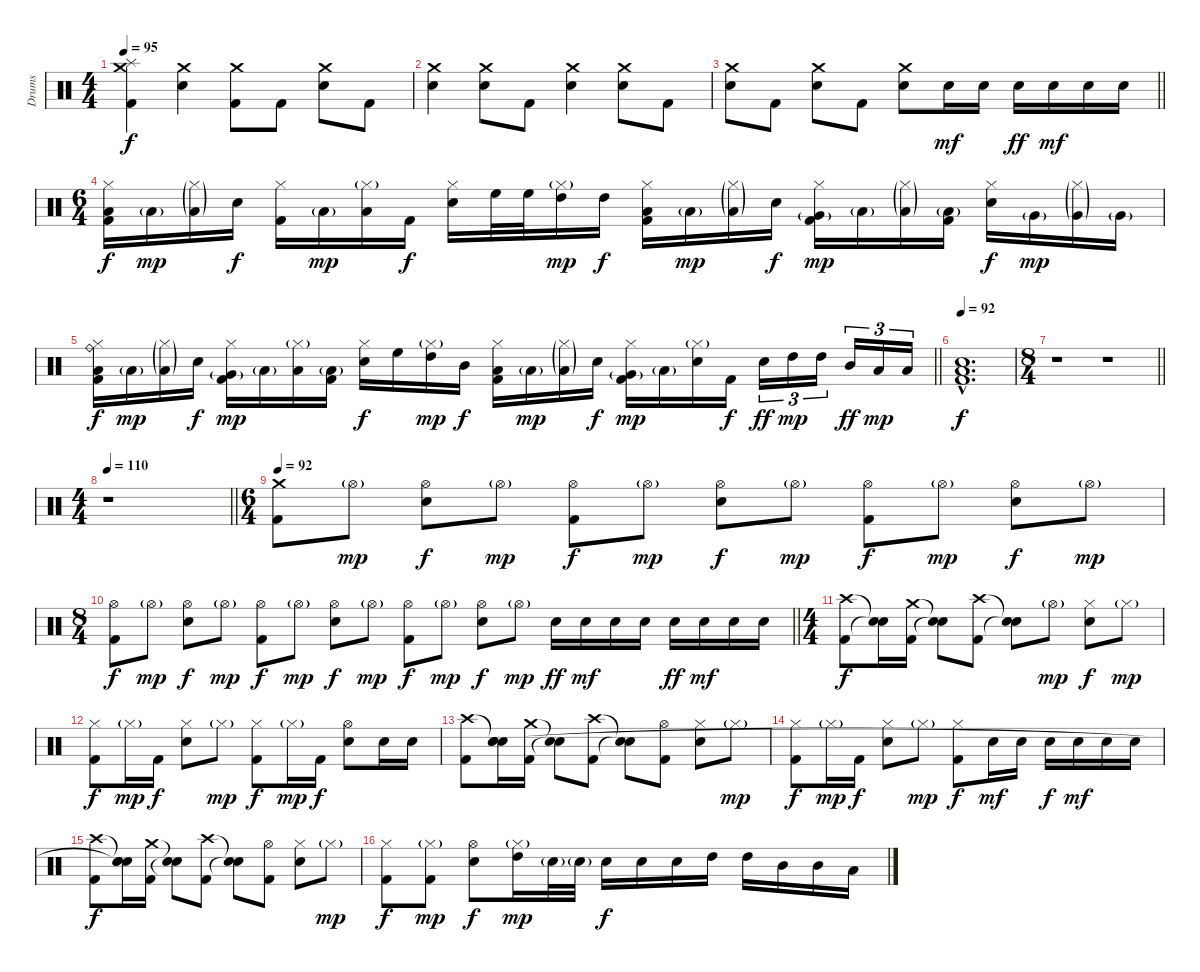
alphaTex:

\track ("Drums" "Drums") {instrument percussion}
\staff {score}
\articulation defaults
\ts (4 4)
\tempo 95
\clef neutral
\ks c
("Splash (hit)" "Crash medium (hit)" "Kick (hit) 2").4{dy f} ("Crash medium (hit)" "Electric Snare (hit)").4 ("Crash medium (hit)" "Kick (hit) 2").8 "Kick (hit) 2".8 ("Crash medium (hit)" "Electric Snare (hit)").8 "Kick (hit) 2".8 |
("Crash medium (hit)" "Electric Snare (hit)").4 ("Crash medium (hit)" "Electric Snare (hit)").8 "Kick (hit) 2".8 ("Crash medium (hit)" "Electric Snare (hit)").4 ("Crash medium (hit)" "Electric Snare (hit)").8 "Kick (hit) 2".8 |
\barLineRight lightlight
("Crash medium (hit)" "Electric Snare (hit)").8 "Kick (hit) 2".8 ("Crash medium (hit)" "Electric Snare (hit)").8 "Kick (hit) 2".8 ("Crash medium (hit)" "Electric Snare (hit)").8 "Electric Snare (hit)".16{dy mf} "Electric Snare (hit)".16 "Electric Snare (hit)".16{dy ff} "Electric Snare (hit)".16{dy mf} "Electric Snare (hit)".16 "Electric Snare (hit)".16 |
\ts (6 4)
("Low Tom (hit)" "Hi-Hat (closed)" "Kick (hit) 2").16{dy f} "Low Tom (hit)"{g}.16{dy mp} ("Low Tom (hit)"{g} "Hi-Hat (closed)"{g}).16 "Electric Snare (hit)".16{dy f} ("Hi-Hat (closed)" "Kick (hit) 2").16 "Low Tom (hit)"{g}.16{dy mp} ("Low Tom (hit)" "Hi-Hat (closed)"{g}).16 "Kick (hit) 2".16{dy f} ("Electric Snare (hit)" "Hi-Hat (closed)").16 "High Floor Tom (hit)".32 "High Floor Tom (hit)".32 ("High Tom (hit)" "Hi-Hat (closed)"{g}).16{dy mp} "High Tom (hit)".16{dy f} ("Low Tom (hit)" "Hi-Hat (closed)" "Kick (hit) 2").16 "Low Tom (hit)"{g}.16{dy mp} ("Low Tom (hit)"{g} "Hi-Hat (closed)"{g}).16 "Electric Snare (hit)".16{dy f} ("Very Low Tom (hit)"{g} "Hi-Hat (closed)" "Kick (hit) 2").16{dy mp} "Low Tom (hit)"{g}.16 ("Low Tom (hit)"{g} "Hi-Hat (closed)"{g}).16 ("Low Tom (hit)"{g} "Kick (hit) 2").16 ("Electric Snare (hit)" "Hi-Hat (closed)").16{dy f} "Very Low Tom (hit)"{g}.16{dy mp} ("Very Low Tom (hit)"{g} "Hi-Hat (closed)"{g}).16 "Very Low Tom (hit)"{g}.16 |
\barLineRight lightlight
("Ride (bell)" "Low Tom (hit)" "Hi-Hat (closed)" "Kick (hit) 2").16{dy f} "Low Tom (hit)"{g}.16{dy mp} ("Low Tom (hit)"{g} "Hi-Hat (closed)"{g}).16 "Electric Snare (hit)".16{dy f} ("Very Low Tom (hit)"{g} "Hi-Hat (closed)" "Kick (hit) 2").16{dy mp} "Low Tom (hit)"{g}.16 ("Low Tom (hit)" "Hi-Hat (closed)"{g}).16 ("Low Tom (hit)"{g} "Kick (hit) 2").16 ("Electric Snare (hit)" "Hi-Hat (closed)").16{dy f} "High Floor Tom (hit)".16 ("High Tom (hit)" "Hi-Hat (closed)"{g}).16{dy mp} "Mid Tom (hit)".16{dy f} ("Low Tom (hit)" "Hi-Hat (closed)" "Kick (hit) 2").16 "Low Tom (hit)"{g}.16{dy mp} ("Low Tom (hit)"{g} "Hi-Hat (closed)"{g}).16 "Electric Snare (hit)".16{dy f} ("Very Low Tom (hit)"{g} "Hi-Hat (closed)" "Kick (hit) 2").16{dy mp} "Low Tom (hit)"{g}.16 ("Electric Snare (hit)" "Hi-Hat (closed)"{g}).16 "Kick (hit) 2".16{dy f} "Electric Snare (hit)".16{tu (3 2) dy ff} "High Tom (hit)".16{tu (3 2) dy mp} "High Tom (hit)".16{tu (3 2)} "Mid Tom (hit)".16{tu (3 2) dy ff} "Low Tom (hit)".16{tu (3 2) dy mp} "Low Tom (hit)".16{tu (3 2)} |
\tempo 92
("Low Tom (hit)"{hac} "Electric Snare (hit)"{hac} "Kick (hit) 2"{hac}).1{d dy f} |
\ts (8 4)
\barLineRight lightlight
r.1 r.1 |
\ts (4 4)
\tempo 110
\barLineRight lightlight
r.1 |
\ts (6 4)
\tempo 92
("Crash medium (hit)" "Kick (hit) 2").8 "Hi-Hat (open)"{g}.8{dy mp} ("Hi-Hat (open)" "Electric Snare (hit)").8{dy f} "Hi-Hat (open)"{g}.8{dy mp} ("Hi-Hat (open)" "Kick (hit) 2").8{dy f} "Hi-Hat (open)"{g}.8{dy mp} ("Hi-Hat (open)" "Electric Snare (hit)").8{dy f} "Hi-Hat (open)"{g}.8{dy mp} ("Hi-Hat (open)" "Kick (hit) 2").8{dy f} "Hi-Hat (open)"{g}.8{dy mp} ("Hi-Hat (open)" "Electric Snare (hit)").8{dy f} "Hi-Hat (open)"{g}.8{dy mp} |
\ts (8 4)
\barLineRight lightlight
("Hi-Hat (open)" "Kick (hit) 2").8{dy f} "Hi-Hat (open)"{g}.8{dy mp} ("Hi-Hat (open)" "Electric Snare (hit)").8{dy f} "Hi-Hat (open)"{g}.8{dy mp} ("Hi-Hat (open)" "Kick (hit) 2").8{dy f} "Hi-Hat (open)"{g}.8{dy mp} ("Hi-Hat (open)" "Electric Snare (hit)").8{dy f} "Hi-Hat (open)"{g}.8{dy mp} ("Hi-Hat (open)" "Kick (hit) 2").8{dy f} "Hi-Hat (open)"{g}.8{dy mp} ("Hi-Hat (open)" "Electric Snare (hit)").8{dy f} "Hi-Hat (open)"{g}.8{dy mp} "Electric Snare (hit)".16{dy ff} "Electric Snare (hit)".16{dy mf} "Electric Snare (hit)".16 "Electric Snare (hit)".16 "Electric Snare (hit)".16{dy ff} "Electric Snare (hit)".16{dy mf} "Electric Snare (hit)".16 "Electric Snare (hit)".16 |
\ts (4 4)
("Crash high (hit)" "Kick (hit) 2").8{dy f} ("Snare (hit)"{t} "Snare (hit)"{t}).16 ("Crash medium (hit)" "Kick (hit) 2").16 ("Snare (hit)"{t} "Snare (hit)"{t}).8 ("Crash high (hit)" "Kick (hit) 2").8 ("Snare (hit)"{t} "Snare (hit)"{t}).8 "Hi-Hat (open)"{g}.8{dy mp} ("Hi-Hat (closed)" "Electric Snare (hit)").8{dy f} "Hi-Hat (closed)"{g}.8{dy mp} |
("Hi-Hat (closed)" "Kick (hit) 2").8{dy f} "Hi-Hat (closed)"{g}.16{dy mp} "Kick (hit) 2".16{dy f} ("Hi-Hat (closed)" "Electric Snare (hit)").8 "Hi-Hat (closed)"{g}.8{dy mp} ("Hi-Hat (closed)" "Kick (hit) 2").8{dy f} "Hi-Hat (closed)"{g}.16{dy mp} "Kick (hit) 2".16{dy f} ("Hi-Hat (open)" "Electric Snare (hit)").8 "Electric Snare (hit)".16 "Electric Snare (hit)".16 |
("Crash high (hit)" "Kick (hit) 2").8 ("Snare (hit)"{t} "Electric Snare (hit)" "Snare (hit)").16 ("Crash medium (hit)" "Kick (hit) 2").16 ("Snare (hit)"{t} "Snare (hit)"{t}).8 ("Crash high (hit)" "Kick (hit) 2").8 ("Snare (hit)"{t} "Snare (hit)"{t}).8 ("Hi-Hat (open)" "Kick (hit) 2").8 ("Hi-Hat (closed)" "Electric Snare (hit)").8 "Hi-Hat (closed)"{g}.8{dy mp} |
("Hi-Hat (closed)" "Kick (hit) 2").8{dy f} "Hi-Hat (closed)"{g}.16{dy mp} "Kick (hit) 2".16{dy f} ("Hi-Hat (closed)" "Electric Snare (hit)").8 "Hi-Hat (closed)"{g}.8{dy mp} ("Hi-Hat (closed)" "Kick (hit) 2").8{dy f} "Electric Snare (hit)".16{dy mf} "Electric Snare (hit)".16 "Electric Snare (hit)".16{dy f} "Electric Snare (hit)".16{dy mf} "Electric Snare (hit)".16 "Electric Snare (hit)".16 |
("Crash high (hit)" "Kick (hit) 2").8{dy f} ("Snare (hit)"{t} "Electric Snare (hit)" "Snare (hit)"{t}).16 ("Crash medium (hit)" "Kick (hit) 2").16 ("Snare (hit)"{t} "Snare (hit)"{t}).8 ("Crash high (hit)" "Kick (hit) 2").8 ("Snare (hit)"{t} "Snare (hit)"{t}).8 ("Hi-Hat (open)" "Kick (hit) 2").8 ("Hi-Hat (closed)" "Electric Snare (hit)").8 "Hi-Hat (closed)"{g}.8{dy mp} |
("Hi-Hat (closed)" "Kick (hit) 2").8{dy f} ("Hi-Hat (closed)"{g} "Kick (hit) 2").8{dy mp} ("Hi-Hat (open)" "Electric Snare (hit)").8{dy f} ("Hi-Hat (closed)"{g} "High Tom (hit)").16{dy mp} "Electric Snare (hit)"{g}.32 "Electric Snare (hit)"{g}.32 "Electric Snare (hit)".16{dy f} "Electric Snare (hit)".16 "Electric Snare (hit)".16 "High Tom (hit)".16 "High Tom (hit)".16 "Mid Tom (hit)".16 "Mid Tom (hit)".16 "Low Tom (hit)".16
